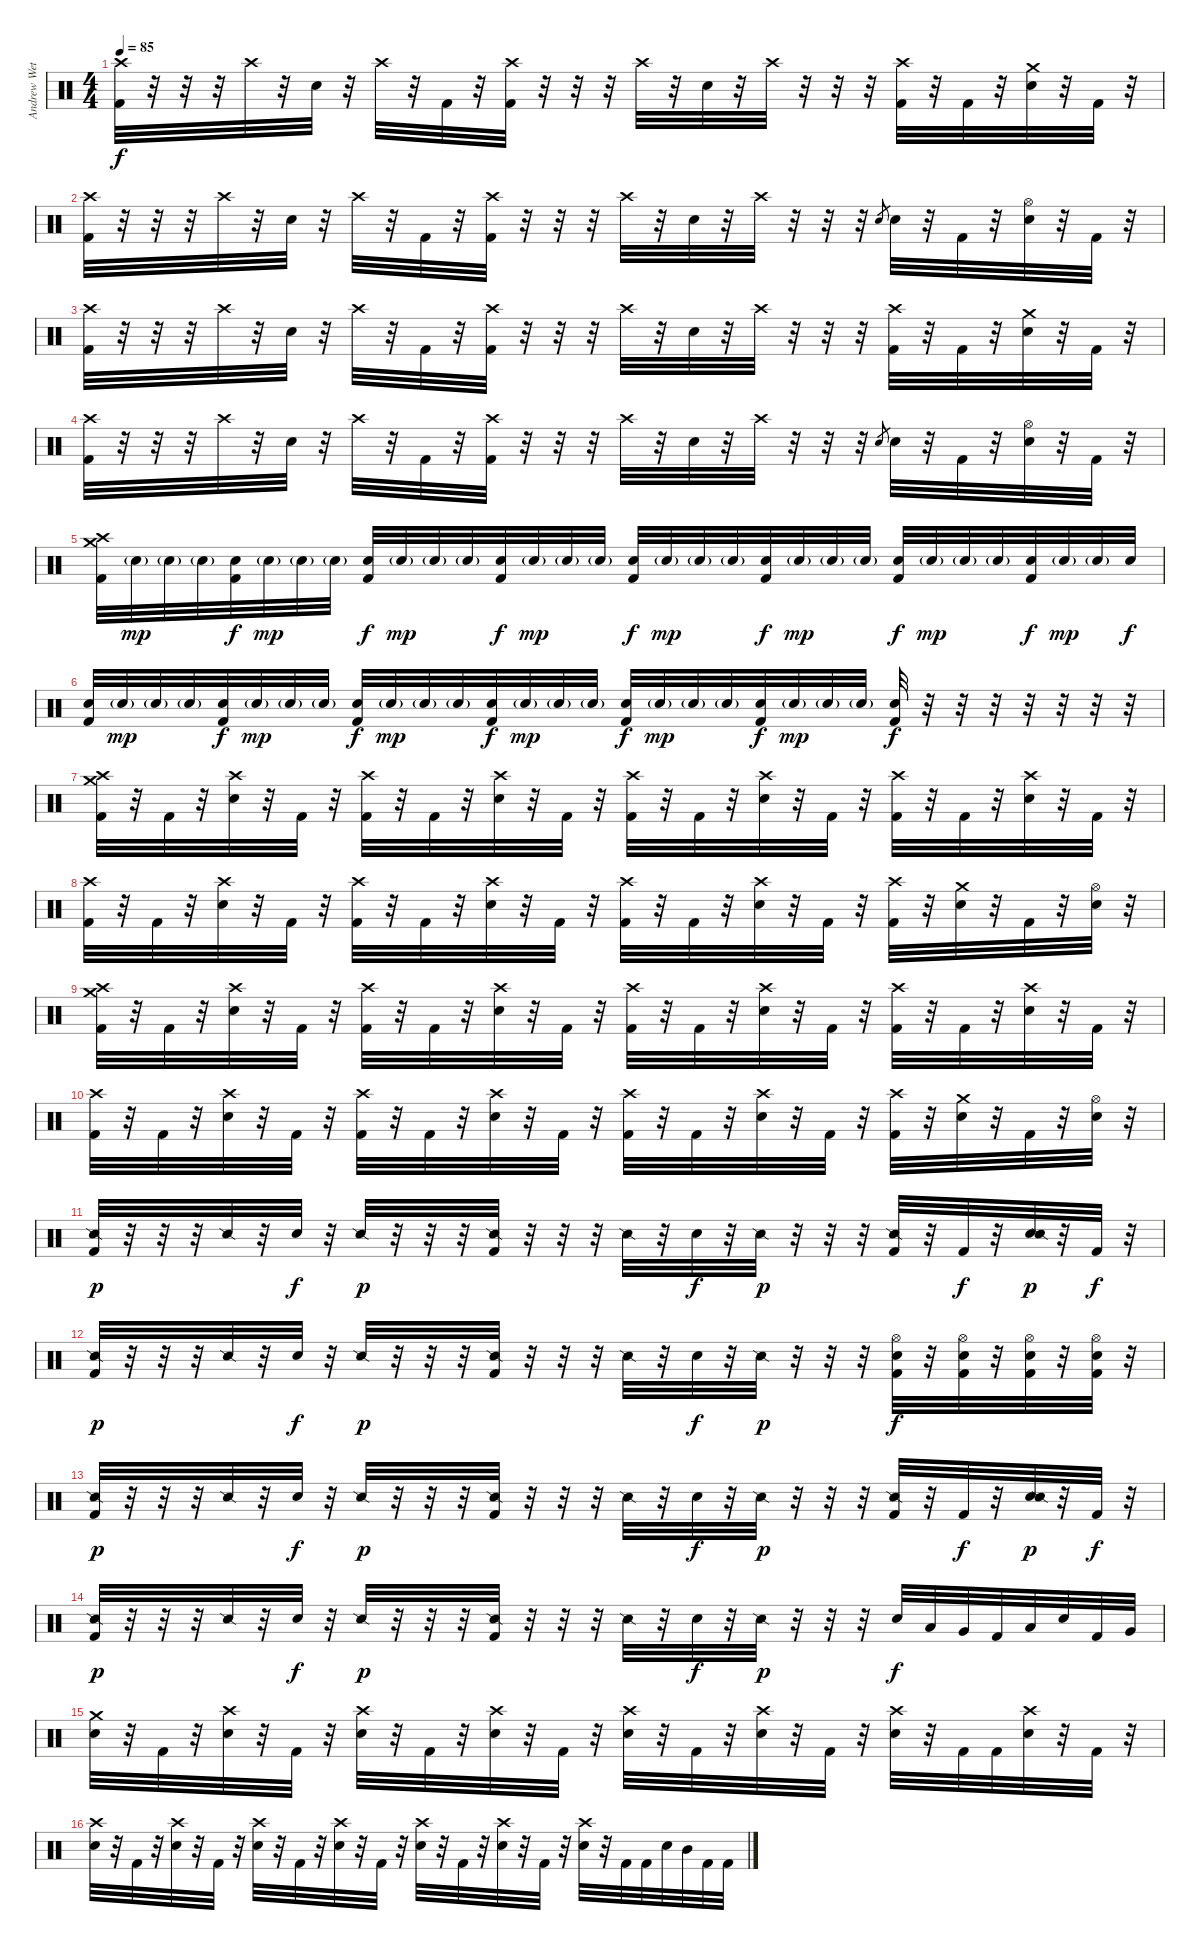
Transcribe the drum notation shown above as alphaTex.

\track ("Andrew Wetzel" "Andrew Wet") {instrument percussion}
\staff {score}
\articulation defaults
\ts (4 4)
\tempo 85
\clef neutral
\ks c
("Crash high (hit)" "Kick (hit) 2").32{dy f} r.32 r.32 r.32 "Crash high (hit)".32 r.32 "Electric Snare (hit)".32 r.32 "Crash high (hit)".32 r.32 "Kick (hit) 2".32 r.32 ("Crash high (hit)" "Kick (hit) 2").32 r.32 r.32 r.32 "Crash high (hit)".32 r.32 "Electric Snare (hit)".32 r.32 "Crash high (hit)".32 r.32 r.32 r.32 ("Crash high (hit)" "Kick (hit) 2").32 r.32 "Kick (hit) 2".32 r.32 ("Crash medium (hit)" "Electric Snare (hit)").32 r.32 "Kick (hit) 2".32 r.32 |
("Crash high (hit)" "Kick (hit) 2").32 r.32 r.32 r.32 "Crash high (hit)".32 r.32 "Electric Snare (hit)".32 r.32 "Crash high (hit)".32 r.32 "Kick (hit) 2".32 r.32 ("Crash high (hit)" "Kick (hit) 2").32 r.32 r.32 r.32 "Crash high (hit)".32 r.32 "Electric Snare (hit)".32 r.32 "Crash high (hit)".32 r.32 r.32 r.32 "Electric Snare (hit)".8{gr} "Electric Snare (hit)".32 r.32 "Kick (hit) 2".32 r.32 ("Hi-Hat (open)" "Electric Snare (hit)").32 r.32 "Kick (hit) 2".32 r.32 |
("Crash high (hit)" "Kick (hit) 2").32 r.32 r.32 r.32 "Crash high (hit)".32 r.32 "Electric Snare (hit)".32 r.32 "Crash high (hit)".32 r.32 "Kick (hit) 2".32 r.32 ("Crash high (hit)" "Kick (hit) 2").32 r.32 r.32 r.32 "Crash high (hit)".32 r.32 "Electric Snare (hit)".32 r.32 "Crash high (hit)".32 r.32 r.32 r.32 ("Crash high (hit)" "Kick (hit) 2").32 r.32 "Kick (hit) 2".32 r.32 ("Crash medium (hit)" "Electric Snare (hit)").32 r.32 "Kick (hit) 2".32 r.32 |
("Crash high (hit)" "Kick (hit) 2").32 r.32 r.32 r.32 "Crash high (hit)".32 r.32 "Electric Snare (hit)".32 r.32 "Crash high (hit)".32 r.32 "Kick (hit) 2".32 r.32 ("Crash high (hit)" "Kick (hit) 2").32 r.32 r.32 r.32 "Crash high (hit)".32 r.32 "Electric Snare (hit)".32 r.32 "Crash high (hit)".32 r.32 r.32 r.32 "Electric Snare (hit)".8{gr} "Electric Snare (hit)".32 r.32 "Kick (hit) 2".32 r.32 ("Hi-Hat (open)" "Electric Snare (hit)").32 r.32 "Kick (hit) 2".32 r.32 |
("Crash medium (hit)" "Crash high (hit)" "Kick (hit) 2").32 "Electric Snare (hit)"{g}.32{dy mp} "Electric Snare (hit)"{g}.32 "Electric Snare (hit)"{g}.32 ("Electric Snare (hit)" "Kick (hit) 2").32{dy f} "Electric Snare (hit)"{g}.32{dy mp} "Electric Snare (hit)"{g}.32 "Electric Snare (hit)"{g}.32 ("Electric Snare (hit)" "Kick (hit) 2").32{dy f} "Electric Snare (hit)"{g}.32{dy mp} "Electric Snare (hit)"{g}.32 "Electric Snare (hit)"{g}.32 ("Electric Snare (hit)" "Kick (hit) 2").32{dy f} "Electric Snare (hit)"{g}.32{dy mp} "Electric Snare (hit)"{g}.32 "Electric Snare (hit)"{g}.32 ("Electric Snare (hit)" "Kick (hit) 2").32{dy f} "Electric Snare (hit)"{g}.32{dy mp} "Electric Snare (hit)"{g}.32 "Electric Snare (hit)"{g}.32 ("Electric Snare (hit)" "Kick (hit) 2").32{dy f} "Electric Snare (hit)"{g}.32{dy mp} "Electric Snare (hit)"{g}.32 "Electric Snare (hit)"{g}.32 ("Electric Snare (hit)" "Kick (hit) 2").32{dy f} "Electric Snare (hit)"{g}.32{dy mp} "Electric Snare (hit)"{g}.32 "Electric Snare (hit)"{g}.32 ("Electric Snare (hit)" "Kick (hit) 2").32{dy f} "Electric Snare (hit)"{g}.32{dy mp} "Electric Snare (hit)"{g}.32 "Electric Snare (hit)".32{dy f} |
("Electric Snare (hit)" "Kick (hit) 2").32 "Electric Snare (hit)"{g}.32{dy mp} "Electric Snare (hit)"{g}.32 "Electric Snare (hit)"{g}.32 ("Electric Snare (hit)" "Kick (hit) 2").32{dy f} "Electric Snare (hit)"{g}.32{dy mp} "Electric Snare (hit)"{g}.32 "Electric Snare (hit)"{g}.32 ("Electric Snare (hit)" "Kick (hit) 2").32{dy f} "Electric Snare (hit)"{g}.32{dy mp} "Electric Snare (hit)"{g}.32 "Electric Snare (hit)"{g}.32 ("Electric Snare (hit)" "Kick (hit) 2").32{dy f} "Electric Snare (hit)"{g}.32{dy mp} "Electric Snare (hit)"{g}.32 "Electric Snare (hit)"{g}.32 ("Electric Snare (hit)" "Kick (hit) 2").32{dy f} "Electric Snare (hit)"{g}.32{dy mp} "Electric Snare (hit)"{g}.32 "Electric Snare (hit)"{g}.32 ("Electric Snare (hit)" "Kick (hit) 2").32{dy f} "Electric Snare (hit)"{g}.32{dy mp} "Electric Snare (hit)"{g}.32 "Electric Snare (hit)"{g}.32 ("Electric Snare (hit)" "Kick (hit) 2").32{dy f} r.32 r.32 r.32 r.32 r.32 r.32 r.32 |
("Crash medium (hit)" "Crash high (hit)" "Kick (hit) 2").32 r.32 "Kick (hit) 2".32 r.32 ("Crash high (hit)" "Electric Snare (hit)").32 r.32 "Kick (hit) 2".32 r.32 ("Crash high (hit)" "Kick (hit) 2").32 r.32 "Kick (hit) 2".32 r.32 ("Crash high (hit)" "Electric Snare (hit)").32 r.32 "Kick (hit) 2".32 r.32 ("Crash high (hit)" "Kick (hit) 2").32 r.32 "Kick (hit) 2".32 r.32 ("Crash high (hit)" "Electric Snare (hit)").32 r.32 "Kick (hit) 2".32 r.32 ("Crash high (hit)" "Kick (hit) 2").32 r.32 "Kick (hit) 2".32 r.32 ("Crash high (hit)" "Electric Snare (hit)").32 r.32 "Kick (hit) 2".32 r.32 |
("Crash high (hit)" "Kick (hit) 2").32 r.32 "Kick (hit) 2".32 r.32 ("Crash high (hit)" "Electric Snare (hit)").32 r.32 "Kick (hit) 2".32 r.32 ("Crash high (hit)" "Kick (hit) 2").32 r.32 "Kick (hit) 2".32 r.32 ("Crash high (hit)" "Electric Snare (hit)").32 r.32 "Kick (hit) 2".32 r.32 ("Crash high (hit)" "Kick (hit) 2").32 r.32 "Kick (hit) 2".32 r.32 ("Crash high (hit)" "Electric Snare (hit)").32 r.32 "Kick (hit) 2".32 r.32 ("Crash high (hit)" "Kick (hit) 2").32 r.32 ("Crash medium (hit)" "Electric Snare (hit)").32 r.32 "Kick (hit) 2".32 r.32 ("Hi-Hat (open)" "Electric Snare (hit)").32 r.32 |
("Crash medium (hit)" "Crash high (hit)" "Kick (hit) 2").32 r.32 "Kick (hit) 2".32 r.32 ("Crash high (hit)" "Electric Snare (hit)").32 r.32 "Kick (hit) 2".32 r.32 ("Crash high (hit)" "Kick (hit) 2").32 r.32 "Kick (hit) 2".32 r.32 ("Crash high (hit)" "Electric Snare (hit)").32 r.32 "Kick (hit) 2".32 r.32 ("Crash high (hit)" "Kick (hit) 2").32 r.32 "Kick (hit) 2".32 r.32 ("Crash high (hit)" "Electric Snare (hit)").32 r.32 "Kick (hit) 2".32 r.32 ("Crash high (hit)" "Kick (hit) 2").32 r.32 "Kick (hit) 2".32 r.32 ("Crash high (hit)" "Electric Snare (hit)").32 r.32 "Kick (hit) 2".32 r.32 |
("Crash high (hit)" "Kick (hit) 2").32 r.32 "Kick (hit) 2".32 r.32 ("Crash high (hit)" "Electric Snare (hit)").32 r.32 "Kick (hit) 2".32 r.32 ("Crash high (hit)" "Kick (hit) 2").32 r.32 "Kick (hit) 2".32 r.32 ("Crash high (hit)" "Electric Snare (hit)").32 r.32 "Kick (hit) 2".32 r.32 ("Crash high (hit)" "Kick (hit) 2").32 r.32 "Kick (hit) 2".32 r.32 ("Crash high (hit)" "Electric Snare (hit)").32 r.32 "Kick (hit) 2".32 r.32 ("Crash high (hit)" "Kick (hit) 2").32 r.32 ("Crash medium (hit)" "Electric Snare (hit)").32 r.32 "Kick (hit) 2".32 r.32 ("Hi-Hat (open)" "Electric Snare (hit)").32 r.32 |
("Snare (side stick) 2" "Kick (hit) 2").32{dy p} r.32 r.32 r.32 "Snare (side stick) 2".32 r.32 "Electric Snare (hit)".32{dy f} r.32 "Snare (side stick) 2".32{dy p} r.32 r.32 r.32 ("Snare (side stick) 2" "Kick (hit) 2").32 r.32 r.32 r.32 "Snare (side stick) 2".32 r.32 "Electric Snare (hit)".32{dy f} r.32 "Snare (side stick) 2".32{dy p} r.32 r.32 r.32 ("Snare (side stick) 2" "Kick (hit) 2").32 r.32 "Kick (hit) 2".32{dy f} r.32 ("Electric Snare (hit)" "Snare (side stick) 2").32{dy p} r.32 "Kick (hit) 2".32{dy f} r.32 |
("Snare (side stick) 2" "Kick (hit) 2").32{dy p} r.32 r.32 r.32 "Snare (side stick) 2".32 r.32 "Electric Snare (hit)".32{dy f} r.32 "Snare (side stick) 2".32{dy p} r.32 r.32 r.32 ("Snare (side stick) 2" "Kick (hit) 2").32 r.32 r.32 r.32 "Snare (side stick) 2".32 r.32 "Electric Snare (hit)".32{dy f} r.32 "Snare (side stick) 2".32{dy p} r.32 r.32 r.32 ("Hi-Hat (open)" "Electric Snare (hit)" "Kick (hit) 2").32{dy f} r.32 ("Hi-Hat (open)" "Electric Snare (hit)" "Kick (hit) 2").32 r.32 ("Hi-Hat (open)" "Electric Snare (hit)" "Kick (hit) 2").32 r.32 ("Hi-Hat (open)" "Electric Snare (hit)" "Kick (hit) 2").32 r.32 |
("Snare (side stick) 2" "Kick (hit) 2").32{dy p} r.32 r.32 r.32 "Snare (side stick) 2".32 r.32 "Electric Snare (hit)".32{dy f} r.32 "Snare (side stick) 2".32{dy p} r.32 r.32 r.32 ("Snare (side stick) 2" "Kick (hit) 2").32 r.32 r.32 r.32 "Snare (side stick) 2".32 r.32 "Electric Snare (hit)".32{dy f} r.32 "Snare (side stick) 2".32{dy p} r.32 r.32 r.32 ("Snare (side stick) 2" "Kick (hit) 2").32 r.32 "Kick (hit) 2".32{dy f} r.32 ("Electric Snare (hit)" "Snare (side stick) 2").32{dy p} r.32 "Kick (hit) 2".32{dy f} r.32 |
("Snare (side stick) 2" "Kick (hit) 2").32{dy p} r.32 r.32 r.32 "Snare (side stick) 2".32 r.32 "Electric Snare (hit)".32{dy f} r.32 "Snare (side stick) 2".32{dy p} r.32 r.32 r.32 ("Snare (side stick) 2" "Kick (hit) 2").32 r.32 r.32 r.32 "Snare (side stick) 2".32 r.32 "Electric Snare (hit)".32{dy f} r.32 "Snare (side stick) 2".32{dy p} r.32 r.32 r.32 "Electric Snare (hit)".32{dy f} "Low Tom (hit)".32 "Very Low Tom (hit)".32 "Kick (hit) 2".32 "Low Tom (hit)".32 "Electric Snare (hit)".32 "Kick (hit) 2".32 "Very Low Tom (hit)".32 |
("Crash medium (hit)" "Electric Snare (hit)").32 r.32 "Kick (hit) 2".32 r.32 ("Crash high (hit)" "Electric Snare (hit)").32 r.32 "Kick (hit) 2".32 r.32 ("Crash high (hit)" "Electric Snare (hit)").32 r.32 "Kick (hit) 2".32 r.32 ("Crash high (hit)" "Electric Snare (hit)").32 r.32 "Kick (hit) 2".32 r.32 ("Crash high (hit)" "Electric Snare (hit)").32 r.32 "Kick (hit) 2".32 r.32 ("Crash high (hit)" "Electric Snare (hit)").32 r.32 "Kick (hit) 2".32 r.32 ("Crash high (hit)" "Electric Snare (hit)").32 r.32 "Kick (hit) 2".32 "Kick (hit) 2".32 ("Crash high (hit)" "Electric Snare (hit)").32 r.32 "Kick (hit) 2".32 r.32 |
("Crash high (hit)" "Electric Snare (hit)").32 r.32 "Kick (hit) 2".32 r.32 ("Crash high (hit)" "Electric Snare (hit)").32 r.32 "Kick (hit) 2".32 r.32 ("Crash high (hit)" "Electric Snare (hit)").32 r.32 "Kick (hit) 2".32 r.32 ("Crash high (hit)" "Electric Snare (hit)").32 r.32 "Kick (hit) 2".32 r.32 ("Crash high (hit)" "Electric Snare (hit)").32 r.32 "Kick (hit) 2".32 r.32 ("Crash high (hit)" "Electric Snare (hit)").32 r.32 "Kick (hit) 2".32 r.32 ("Crash high (hit)" "Electric Snare (hit)").32 r.32 "Kick (hit) 2".32 "Kick (hit) 2".32 "Electric Snare (hit)".32 "Mid Tom (hit)".32 "Kick (hit) 2".32 "Kick (hit) 2".32
